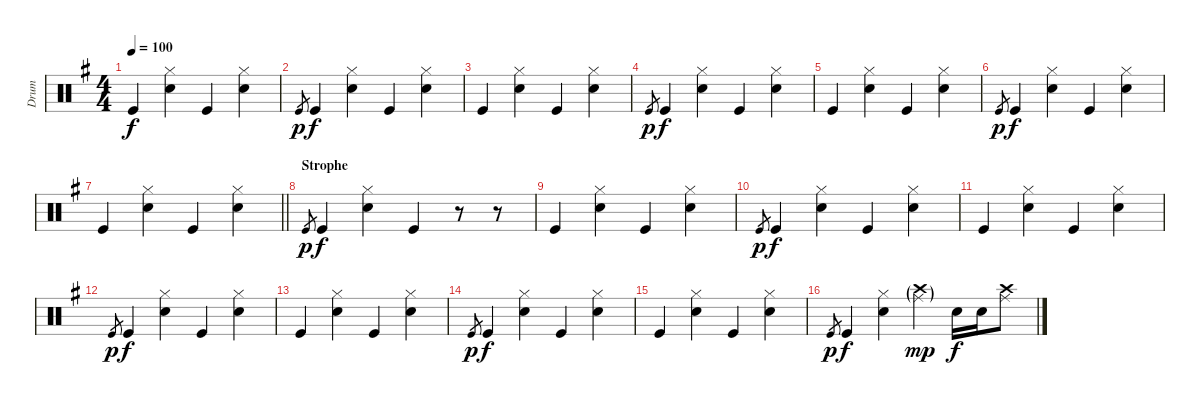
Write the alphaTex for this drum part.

\track ("Drum" "Drum") {instrument percussion}
\staff {score}
\articulation defaults
\ts (4 4)
\tempo 100
\clef neutral
\ks eminor "Kick (hit)".4{dy f}
("Snare (hit) 2" "Hi-Hat (closed)").4 "Kick (hit)".4 ("Snare (hit) 2" "Hi-Hat (closed)").4 |
"Kick (hit)"{h}.8{gr dy p} "Kick (hit)".4{dy f} ("Snare (hit) 2" "Hi-Hat (closed)").4 "Kick (hit)".4 ("Snare (hit) 2" "Hi-Hat (closed)").4 |
"Kick (hit)".4 ("Snare (hit) 2" "Hi-Hat (closed)").4 "Kick (hit)".4 ("Snare (hit) 2" "Hi-Hat (closed)").4 |
"Kick (hit)"{h}.8{gr dy p} "Kick (hit)".4{dy f} ("Snare (hit) 2" "Hi-Hat (closed)").4 "Kick (hit)".4 ("Snare (hit) 2" "Hi-Hat (closed)").4 |
"Kick (hit)".4 ("Snare (hit) 2" "Hi-Hat (closed)").4 "Kick (hit)".4 ("Snare (hit) 2" "Hi-Hat (closed)").4 |
"Kick (hit)"{h}.8{gr dy p} "Kick (hit)".4{dy f} ("Snare (hit) 2" "Hi-Hat (closed)").4 "Kick (hit)".4 ("Snare (hit) 2" "Hi-Hat (closed)").4 |
\barLineRight lightlight "Kick (hit)".4
("Snare (hit) 2" "Hi-Hat (closed)").4 "Kick (hit)".4 ("Snare (hit) 2" "Hi-Hat (closed)").4 |
\section ("" "Strophe")
"Kick (hit)"{h}.8{gr dy p} "Kick (hit)".4{dy f volume 9} ("Snare (hit) 2" "Hi-Hat (closed)").4 "Kick (hit)".4 r.8 r.8 |
"Kick (hit)".4 ("Snare (hit) 2" "Hi-Hat (closed)").4 "Kick (hit)".4 ("Snare (hit) 2" "Hi-Hat (closed)").4 |
"Kick (hit)"{h}.8{gr dy p} "Kick (hit)".4{dy f} ("Snare (hit) 2" "Hi-Hat (closed)").4 "Kick (hit)".4 ("Snare (hit) 2" "Hi-Hat (closed)").4 |
"Kick (hit)".4 ("Snare (hit) 2" "Hi-Hat (closed)").4 "Kick (hit)".4 ("Snare (hit) 2" "Hi-Hat (closed)").4 |
"Kick (hit)"{h}.8{gr dy p} "Kick (hit)".4{dy f} ("Snare (hit) 2" "Hi-Hat (closed)").4 "Kick (hit)".4 ("Snare (hit) 2" "Hi-Hat (closed)").4 |
"Kick (hit)".4 ("Snare (hit) 2" "Hi-Hat (closed)").4 "Kick (hit)".4 ("Snare (hit) 2" "Hi-Hat (closed)").4 |
"Kick (hit)"{h}.8{gr dy p} "Kick (hit)".4{dy f} ("Snare (hit) 2" "Hi-Hat (closed)").4 "Kick (hit)".4 ("Snare (hit) 2" "Hi-Hat (closed)").4 |
"Kick (hit)".4 ("Snare (hit) 2" "Hi-Hat (closed)").4 "Kick (hit)".4 ("Snare (hit) 2" "Hi-Hat (closed)").4 |
"Kick (hit)"{h}.8{gr dy p} "Kick (hit)".4{dy f} ("Snare (hit) 2" "Hi-Hat (closed)").4 ("Ride (middle)"{g} "Crash high (hit)"{g}).4{dy mp} "Snare (hit) 2".16{dy f} "Snare (hit) 2".16 ("Crash high (hit)" "Ride (middle)").8
